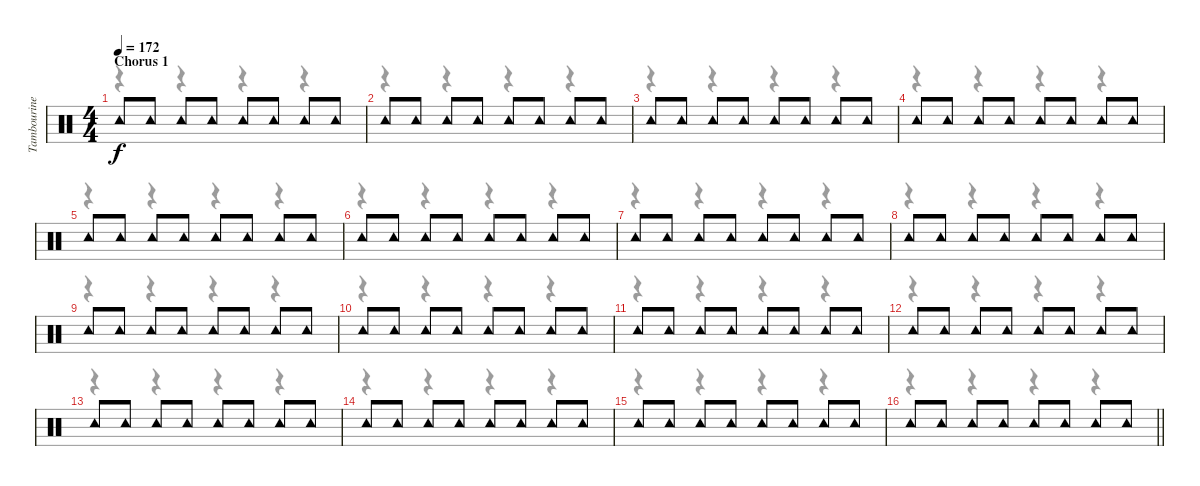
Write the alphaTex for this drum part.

\track ("Tambourine" "Tambourine") {instrument percussion}
\staff {score}
\articulation defaults
\voice
\ts (4 4)
\section ("" "Chorus 1")
\tempo 172
\clef neutral
\ks c "Tambourine (hit)".8{dy f} "Tambourine (hit)".8 "Tambourine (hit)".8 "Tambourine (hit)".8 "Tambourine (hit)".8 "Tambourine (hit)".8 "Tambourine (hit)".8 "Tambourine (hit)".8
|
"Tambourine (hit)".8 "Tambourine (hit)".8 "Tambourine (hit)".8 "Tambourine (hit)".8 "Tambourine (hit)".8 "Tambourine (hit)".8 "Tambourine (hit)".8 "Tambourine (hit)".8 |
"Tambourine (hit)".8 "Tambourine (hit)".8 "Tambourine (hit)".8 "Tambourine (hit)".8 "Tambourine (hit)".8 "Tambourine (hit)".8 "Tambourine (hit)".8 "Tambourine (hit)".8 |
"Tambourine (hit)".8 "Tambourine (hit)".8 "Tambourine (hit)".8 "Tambourine (hit)".8 "Tambourine (hit)".8 "Tambourine (hit)".8 "Tambourine (hit)".8 "Tambourine (hit)".8 |
"Tambourine (hit)".8 "Tambourine (hit)".8 "Tambourine (hit)".8 "Tambourine (hit)".8 "Tambourine (hit)".8 "Tambourine (hit)".8 "Tambourine (hit)".8 "Tambourine (hit)".8 |
"Tambourine (hit)".8 "Tambourine (hit)".8 "Tambourine (hit)".8 "Tambourine (hit)".8 "Tambourine (hit)".8 "Tambourine (hit)".8 "Tambourine (hit)".8 "Tambourine (hit)".8 |
"Tambourine (hit)".8 "Tambourine (hit)".8 "Tambourine (hit)".8 "Tambourine (hit)".8 "Tambourine (hit)".8 "Tambourine (hit)".8 "Tambourine (hit)".8 "Tambourine (hit)".8 |
"Tambourine (hit)".8 "Tambourine (hit)".8 "Tambourine (hit)".8 "Tambourine (hit)".8 "Tambourine (hit)".8 "Tambourine (hit)".8 "Tambourine (hit)".8 "Tambourine (hit)".8 |
"Tambourine (hit)".8 "Tambourine (hit)".8 "Tambourine (hit)".8 "Tambourine (hit)".8 "Tambourine (hit)".8 "Tambourine (hit)".8 "Tambourine (hit)".8 "Tambourine (hit)".8 |
"Tambourine (hit)".8 "Tambourine (hit)".8 "Tambourine (hit)".8 "Tambourine (hit)".8 "Tambourine (hit)".8 "Tambourine (hit)".8 "Tambourine (hit)".8 "Tambourine (hit)".8 |
"Tambourine (hit)".8 "Tambourine (hit)".8 "Tambourine (hit)".8 "Tambourine (hit)".8 "Tambourine (hit)".8 "Tambourine (hit)".8 "Tambourine (hit)".8 "Tambourine (hit)".8 |
"Tambourine (hit)".8 "Tambourine (hit)".8 "Tambourine (hit)".8 "Tambourine (hit)".8 "Tambourine (hit)".8 "Tambourine (hit)".8 "Tambourine (hit)".8 "Tambourine (hit)".8 |
"Tambourine (hit)".8 "Tambourine (hit)".8 "Tambourine (hit)".8 "Tambourine (hit)".8 "Tambourine (hit)".8 "Tambourine (hit)".8 "Tambourine (hit)".8 "Tambourine (hit)".8 |
"Tambourine (hit)".8 "Tambourine (hit)".8 "Tambourine (hit)".8 "Tambourine (hit)".8 "Tambourine (hit)".8 "Tambourine (hit)".8 "Tambourine (hit)".8 "Tambourine (hit)".8 |
"Tambourine (hit)".8 "Tambourine (hit)".8 "Tambourine (hit)".8 "Tambourine (hit)".8 "Tambourine (hit)".8 "Tambourine (hit)".8 "Tambourine (hit)".8 "Tambourine (hit)".8 |
\barLineRight lightlight "Tambourine (hit)".8 "Tambourine (hit)".8 "Tambourine (hit)".8 "Tambourine (hit)".8 "Tambourine (hit)".8 "Tambourine (hit)".8 "Tambourine (hit)".8 "Tambourine (hit)".8
\voice
\clef neutral
\ottava regular
\simile none
\ks c
r.4{dy f} r.4 r.4 r.4 |
r.4 r.4 r.4 r.4 |
r.4 r.4 r.4 r.4 |
r.4 r.4 r.4 r.4 |
r.4 r.4 r.4 r.4 |
r.4 r.4 r.4 r.4 |
r.4 r.4 r.4 r.4 |
r.4 r.4 r.4 r.4 |
r.4 r.4 r.4 r.4 |
r.4 r.4 r.4 r.4 |
r.4 r.4 r.4 r.4 |
r.4 r.4 r.4 r.4 |
r.4 r.4 r.4 r.4 |
r.4 r.4 r.4 r.4 |
r.4 r.4 r.4 r.4 |
\barLineRight lightlight
r.4 r.4 r.4 r.4
